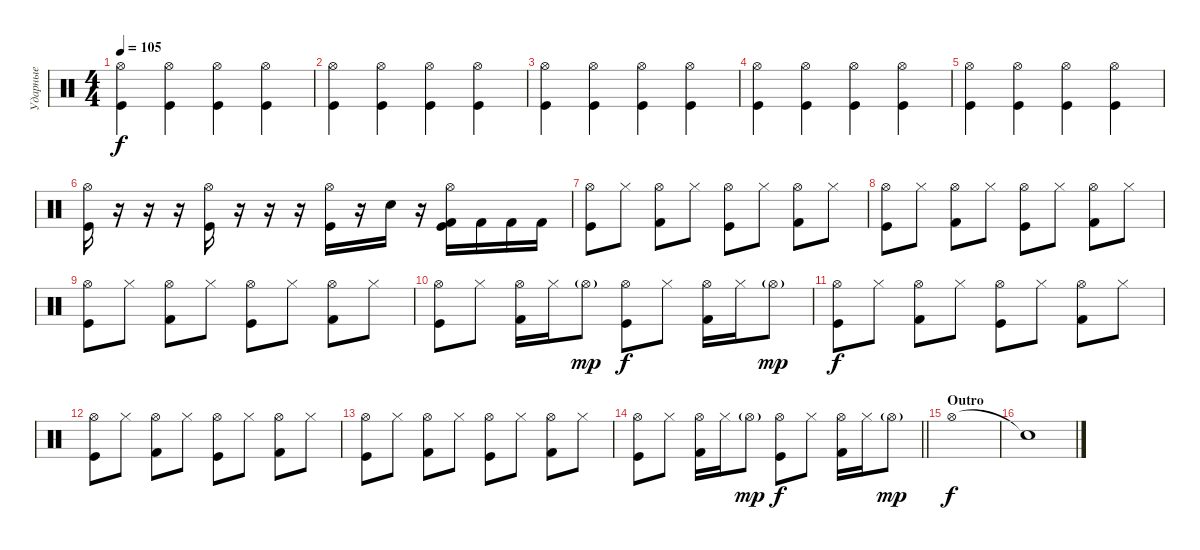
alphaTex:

\track ("Ударные" "Ударные") {instrument percussion}
\staff {score}
\articulation defaults
\ts (4 4)
\tempo 105
\clef neutral
\ks c
("Hi-Hat (open)" "Kick (hit)").4{dy f} ("Hi-Hat (open)" "Kick (hit)").4 ("Hi-Hat (open)" "Kick (hit)").4 ("Hi-Hat (open)" "Kick (hit)").4 |
("Hi-Hat (open)" "Kick (hit)").4 ("Hi-Hat (open)" "Kick (hit)").4 ("Hi-Hat (open)" "Kick (hit)").4 ("Hi-Hat (open)" "Kick (hit)").4 |
("Hi-Hat (open)" "Kick (hit)").4 ("Hi-Hat (open)" "Kick (hit)").4 ("Hi-Hat (open)" "Kick (hit)").4 ("Hi-Hat (open)" "Kick (hit)").4 |
("Hi-Hat (open)" "Kick (hit)").4 ("Hi-Hat (open)" "Kick (hit)").4 ("Hi-Hat (open)" "Kick (hit)").4 ("Hi-Hat (open)" "Kick (hit)").4 |
("Hi-Hat (open)" "Kick (hit)").4 ("Hi-Hat (open)" "Kick (hit)").4 ("Hi-Hat (open)" "Kick (hit)").4 ("Hi-Hat (open)" "Kick (hit)").4 |
("Hi-Hat (open)" "Kick (hit)").16 r.16 r.16 r.16 ("Hi-Hat (open)" "Kick (hit)").16 r.16 r.16 r.16 ("Hi-Hat (open)" "Kick (hit)").16 r.16 "Snare (hit) 2".16 r.16 ("Hi-Hat (open)" "Kick (hit) 2" "Kick (hit)").16 "Kick (hit) 2".16 "Kick (hit) 2".16 "Kick (hit) 2".16 |
("Hi-Hat (open)" "Kick (hit)").8 "Hi-Hat (closed)".8 ("Hi-Hat (open)" "Kick (hit) 2").8 "Hi-Hat (closed)".8 ("Hi-Hat (open)" "Kick (hit)").8 "Hi-Hat (closed)".8 ("Hi-Hat (open)" "Kick (hit) 2").8 "Hi-Hat (closed)".8 |
("Hi-Hat (open)" "Kick (hit)").8 "Hi-Hat (closed)".8 ("Hi-Hat (open)" "Kick (hit) 2").8 "Hi-Hat (closed)".8 ("Hi-Hat (open)" "Kick (hit)").8 "Hi-Hat (closed)".8 ("Hi-Hat (open)" "Kick (hit) 2").8 "Hi-Hat (closed)".8 |
("Hi-Hat (open)" "Kick (hit)").8 "Hi-Hat (closed)".8 ("Hi-Hat (open)" "Kick (hit) 2").8 "Hi-Hat (closed)".8 ("Hi-Hat (open)" "Kick (hit)").8 "Hi-Hat (closed)".8 ("Hi-Hat (open)" "Kick (hit) 2").8 "Hi-Hat (closed)".8 |
("Hi-Hat (open)" "Kick (hit)").8 "Hi-Hat (closed)".8 ("Hi-Hat (open)" "Kick (hit) 2").16 "Hi-Hat (closed)".16 "Hi-Hat (open)"{g}.8{dy mp} ("Hi-Hat (open)" "Kick (hit)").8{dy f} "Hi-Hat (closed)".8 ("Hi-Hat (open)" "Kick (hit) 2").16 "Hi-Hat (closed)".16 "Hi-Hat (open)"{g}.8{dy mp} |
("Hi-Hat (open)" "Kick (hit)").8{dy f} "Hi-Hat (closed)".8 ("Hi-Hat (open)" "Kick (hit) 2").8 "Hi-Hat (closed)".8 ("Hi-Hat (open)" "Kick (hit)").8 "Hi-Hat (closed)".8 ("Hi-Hat (open)" "Kick (hit) 2").8 "Hi-Hat (closed)".8 |
("Hi-Hat (open)" "Kick (hit)").8 "Hi-Hat (closed)".8 ("Hi-Hat (open)" "Kick (hit) 2").8 "Hi-Hat (closed)".8 ("Hi-Hat (open)" "Kick (hit)").8 "Hi-Hat (closed)".8 ("Hi-Hat (open)" "Kick (hit) 2").8 "Hi-Hat (closed)".8 |
("Hi-Hat (open)" "Kick (hit)").8 "Hi-Hat (closed)".8 ("Hi-Hat (open)" "Kick (hit) 2").8 "Hi-Hat (closed)".8 ("Hi-Hat (open)" "Kick (hit)").8 "Hi-Hat (closed)".8 ("Hi-Hat (open)" "Kick (hit) 2").8 "Hi-Hat (closed)".8 |
\barLineRight lightlight
("Hi-Hat (open)" "Kick (hit)").8 "Hi-Hat (closed)".8 ("Hi-Hat (open)" "Kick (hit) 2").16 "Hi-Hat (closed)".16 "Hi-Hat (open)"{g}.8{dy mp} ("Hi-Hat (open)" "Kick (hit)").8{dy f} "Hi-Hat (closed)".8 ("Hi-Hat (open)" "Kick (hit) 2").16 "Hi-Hat (closed)".16 "Hi-Hat (open)"{g}.8{dy mp} |
\section ("" "Outro")
"Hi-Hat (open)".1{dy f} |
"Snare (hit)"{t}.1
